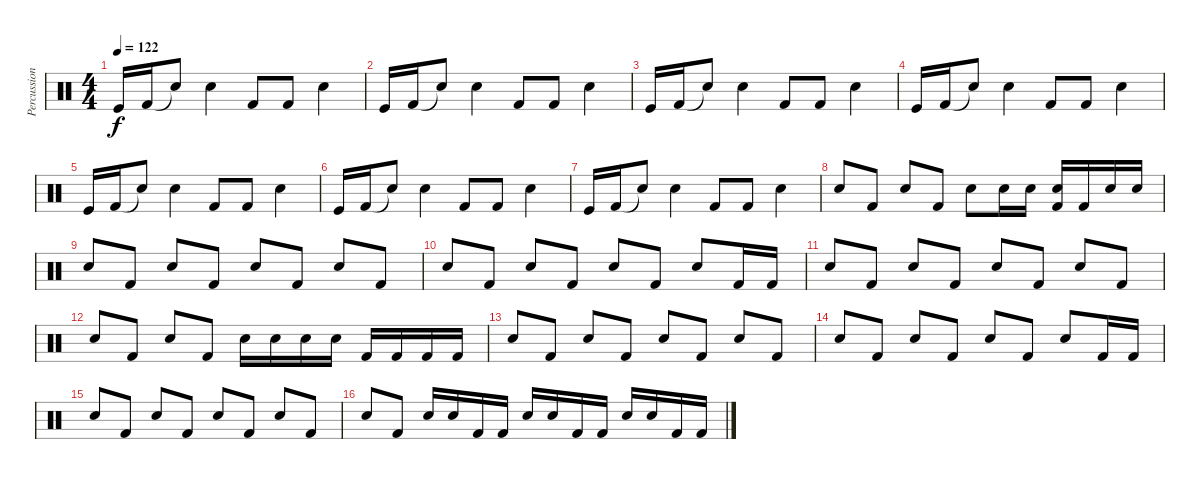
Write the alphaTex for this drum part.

\track ("Percussion" "Percussion") {instrument percussion}
\staff {score}
\articulation defaults
\ts (4 4)
\tempo 122
\clef neutral
\ks c "Kick (hit)".16{dy f volume 14} "Kick (hit) 2".16 "Snare (hit)"{t}.8 "Electric Snare (hit)".4 "Kick (hit) 2".8 "Kick (hit) 2".8 "Electric Snare (hit)".4
|
"Kick (hit)".16 "Kick (hit) 2".16 "Snare (hit)"{t}.8 "Electric Snare (hit)".4 "Kick (hit) 2".8 "Kick (hit) 2".8 "Electric Snare (hit)".4 |
"Kick (hit)".16 "Kick (hit) 2".16 "Snare (hit)"{t}.8 "Electric Snare (hit)".4 "Kick (hit) 2".8 "Kick (hit) 2".8 "Electric Snare (hit)".4 |
"Kick (hit)".16 "Kick (hit) 2".16 "Snare (hit)"{t}.8 "Electric Snare (hit)".4 "Kick (hit) 2".8 "Kick (hit) 2".8 "Electric Snare (hit)".4 |
"Kick (hit)".16 "Kick (hit) 2".16 "Snare (hit)"{t}.8 "Electric Snare (hit)".4 "Kick (hit) 2".8 "Kick (hit) 2".8 "Electric Snare (hit)".4 |
"Kick (hit)".16 "Kick (hit) 2".16 "Snare (hit)"{t}.8 "Electric Snare (hit)".4 "Kick (hit) 2".8 "Kick (hit) 2".8 "Electric Snare (hit)".4 |
"Kick (hit)".16 "Kick (hit) 2".16 "Snare (hit)"{t}.8 "Electric Snare (hit)".4 "Kick (hit) 2".8 "Kick (hit) 2".8 "Electric Snare (hit)".4 |
"Electric Snare (hit)".8{volume 16} "Kick (hit) 2".8 "Electric Snare (hit)".8 "Kick (hit) 2".8 "Electric Snare (hit)".8 "Electric Snare (hit)".16 "Electric Snare (hit)".16 ("Electric Snare (hit)" "Kick (hit) 2").16 "Kick (hit) 2".16 "Electric Snare (hit)".16 "Electric Snare (hit)".16 |
"Electric Snare (hit)".8 "Kick (hit) 2".8 "Electric Snare (hit)".8 "Kick (hit) 2".8 "Electric Snare (hit)".8 "Kick (hit) 2".8 "Electric Snare (hit)".8 "Kick (hit) 2".8 |
"Electric Snare (hit)".8 "Kick (hit) 2".8 "Electric Snare (hit)".8 "Kick (hit) 2".8 "Electric Snare (hit)".8 "Kick (hit) 2".8 "Electric Snare (hit)".8 "Kick (hit) 2".16 "Kick (hit) 2".16 |
"Electric Snare (hit)".8 "Kick (hit) 2".8 "Electric Snare (hit)".8 "Kick (hit) 2".8 "Electric Snare (hit)".8 "Kick (hit) 2".8 "Electric Snare (hit)".8 "Kick (hit) 2".8 |
"Electric Snare (hit)".8 "Kick (hit) 2".8 "Electric Snare (hit)".8 "Kick (hit) 2".8 "Electric Snare (hit)".16 "Electric Snare (hit)".16 "Electric Snare (hit)".16 "Electric Snare (hit)".16 "Kick (hit) 2".16 "Kick (hit) 2".16 "Kick (hit) 2".16 "Kick (hit) 2".16 |
"Electric Snare (hit)".8 "Kick (hit) 2".8 "Electric Snare (hit)".8 "Kick (hit) 2".8 "Electric Snare (hit)".8 "Kick (hit) 2".8 "Electric Snare (hit)".8 "Kick (hit) 2".8 |
"Electric Snare (hit)".8 "Kick (hit) 2".8 "Electric Snare (hit)".8 "Kick (hit) 2".8 "Electric Snare (hit)".8 "Kick (hit) 2".8 "Electric Snare (hit)".8 "Kick (hit) 2".16 "Kick (hit) 2".16 |
"Electric Snare (hit)".8 "Kick (hit) 2".8 "Electric Snare (hit)".8 "Kick (hit) 2".8 "Electric Snare (hit)".8 "Kick (hit) 2".8 "Electric Snare (hit)".8 "Kick (hit) 2".8 |
"Electric Snare (hit)".8 "Kick (hit) 2".8 "Electric Snare (hit)".16 "Electric Snare (hit)".16 "Kick (hit) 2".16 "Kick (hit) 2".16 "Electric Snare (hit)".16 "Electric Snare (hit)".16 "Kick (hit) 2".16 "Kick (hit) 2".16 "Electric Snare (hit)".16 "Electric Snare (hit)".16 "Kick (hit) 2".16 "Kick (hit) 2".16
